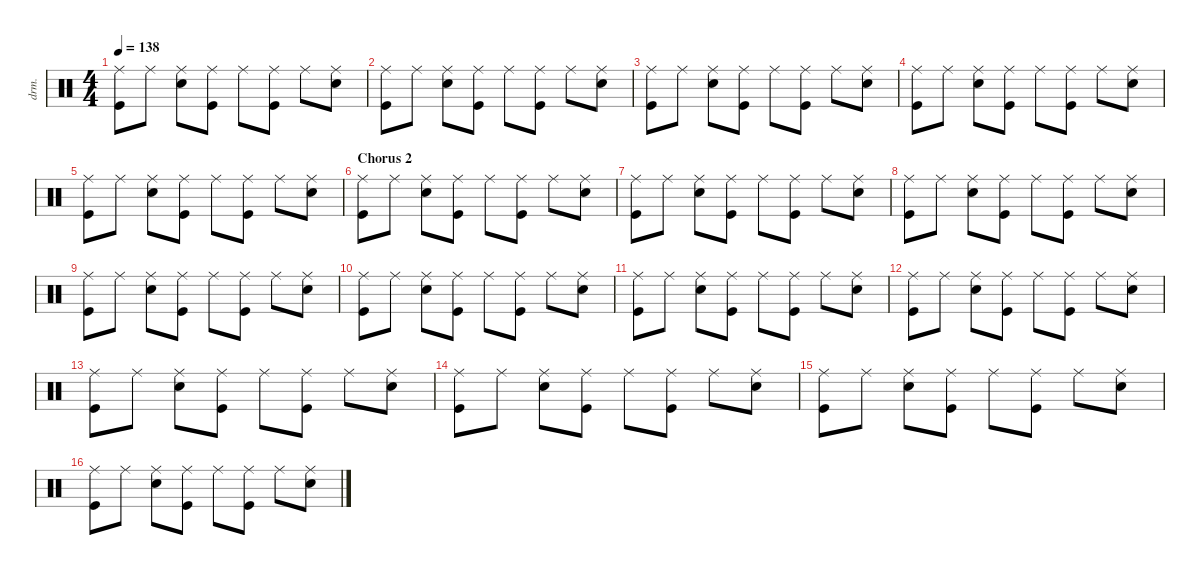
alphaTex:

\defaultSystemsLayout 4
\hideDynamics
\bracketExtendMode nobrackets
\otherSystemsTrackNameOrientation horizontal
\track ("Drums" "drm.") {instrument percussion}
\staff {score}
\articulation defaults
\ts (4 4)
\tempo 138
\clef neutral
\ks c
("Ride (middle)" "Kick (hit)").8{dy f beam Down} "Ride (middle)".8{beam Down} ("Ride (middle)" "Snare (hit) 2").8{beam Down} ("Ride (middle)" "Kick (hit)").8{beam Down} "Ride (middle)".8{beam Down} ("Ride (middle)" "Kick (hit)").8{beam Down} "Ride (middle)".8{beam Down} ("Ride (middle)" "Snare (hit) 2").8{beam Down} |
("Ride (middle)" "Kick (hit)").8{beam Down} "Ride (middle)".8{beam Down} ("Ride (middle)" "Snare (hit) 2").8{beam Down} ("Ride (middle)" "Kick (hit)").8{beam Down} "Ride (middle)".8{beam Down} ("Ride (middle)" "Kick (hit)").8{beam Down} "Ride (middle)".8{beam Down} ("Ride (middle)" "Snare (hit) 2").8{beam Down} |
("Ride (middle)" "Kick (hit)").8{beam Down} "Ride (middle)".8{beam Down} ("Ride (middle)" "Snare (hit) 2").8{beam Down} ("Ride (middle)" "Kick (hit)").8{beam Down} "Ride (middle)".8{beam Down} ("Ride (middle)" "Kick (hit)").8{beam Down} "Ride (middle)".8{beam Down} ("Ride (middle)" "Snare (hit) 2").8{beam Down} |
("Ride (middle)" "Kick (hit)").8{beam Down} "Ride (middle)".8{beam Down} ("Ride (middle)" "Snare (hit) 2").8{beam Down} ("Ride (middle)" "Kick (hit)").8{beam Down} "Ride (middle)".8{beam Down} ("Ride (middle)" "Kick (hit)").8{beam Down} "Ride (middle)".8{beam Down} ("Ride (middle)" "Snare (hit) 2").8{beam Down} |
("Ride (middle)" "Kick (hit)").8{beam Down} "Ride (middle)".8{beam Down} ("Ride (middle)" "Snare (hit) 2").8{beam Down} ("Ride (middle)" "Kick (hit)").8{beam Down} "Ride (middle)".8{beam Down} ("Ride (middle)" "Kick (hit)").8{beam Down} "Ride (middle)".8{beam Down} ("Ride (middle)" "Snare (hit) 2").8{beam Down} |
\section ("" "Chorus 2")
("Ride (middle)" "Kick (hit)").8{beam Down} "Ride (middle)".8{beam Down} ("Ride (middle)" "Snare (hit) 2").8{beam Down} ("Ride (middle)" "Kick (hit)").8{beam Down} "Ride (middle)".8{beam Down} ("Ride (middle)" "Kick (hit)").8{beam Down} "Ride (middle)".8{beam Down} ("Ride (middle)" "Snare (hit) 2").8{beam Down} |
("Ride (middle)" "Kick (hit)").8{beam Down} "Ride (middle)".8{beam Down} ("Ride (middle)" "Snare (hit) 2").8{beam Down} ("Ride (middle)" "Kick (hit)").8{beam Down} "Ride (middle)".8{beam Down} ("Ride (middle)" "Kick (hit)").8{beam Down} "Ride (middle)".8{beam Down} ("Ride (middle)" "Snare (hit) 2").8{beam Down} |
("Ride (middle)" "Kick (hit)").8{beam Down} "Ride (middle)".8{beam Down} ("Ride (middle)" "Snare (hit) 2").8{beam Down} ("Ride (middle)" "Kick (hit)").8{beam Down} "Ride (middle)".8{beam Down} ("Ride (middle)" "Kick (hit)").8{beam Down} "Ride (middle)".8{beam Down} ("Ride (middle)" "Snare (hit) 2").8{beam Down} |
("Ride (middle)" "Kick (hit)").8{beam Down} "Ride (middle)".8{beam Down} ("Ride (middle)" "Snare (hit) 2").8{beam Down} ("Ride (middle)" "Kick (hit)").8{beam Down} "Ride (middle)".8{beam Down} ("Ride (middle)" "Kick (hit)").8{beam Down} "Ride (middle)".8{beam Down} ("Ride (middle)" "Snare (hit) 2").8{beam Down} |
("Ride (middle)" "Kick (hit)").8{beam Down} "Ride (middle)".8{beam Down} ("Ride (middle)" "Snare (hit) 2").8{beam Down} ("Ride (middle)" "Kick (hit)").8{beam Down} "Ride (middle)".8{beam Down} ("Ride (middle)" "Kick (hit)").8{beam Down} "Ride (middle)".8{beam Down} ("Ride (middle)" "Snare (hit) 2").8{beam Down} |
("Ride (middle)" "Kick (hit)").8{beam Down} "Ride (middle)".8{beam Down} ("Ride (middle)" "Snare (hit) 2").8{beam Down} ("Ride (middle)" "Kick (hit)").8{beam Down} "Ride (middle)".8{beam Down} ("Ride (middle)" "Kick (hit)").8{beam Down} "Ride (middle)".8{beam Down} ("Ride (middle)" "Snare (hit) 2").8{beam Down} |
("Ride (middle)" "Kick (hit)").8{beam Down} "Ride (middle)".8{beam Down} ("Ride (middle)" "Snare (hit) 2").8{beam Down} ("Ride (middle)" "Kick (hit)").8{beam Down} "Ride (middle)".8{beam Down} ("Ride (middle)" "Kick (hit)").8{beam Down} "Ride (middle)".8{beam Down} ("Ride (middle)" "Snare (hit) 2").8{beam Down} |
("Ride (middle)" "Kick (hit)").8{beam Down} "Ride (middle)".8{beam Down} ("Ride (middle)" "Snare (hit) 2").8{beam Down} ("Ride (middle)" "Kick (hit)").8{beam Down} "Ride (middle)".8{beam Down} ("Ride (middle)" "Kick (hit)").8{beam Down} "Ride (middle)".8{beam Down} ("Ride (middle)" "Snare (hit) 2").8{beam Down} |
("Ride (middle)" "Kick (hit)").8{beam Down} "Ride (middle)".8{beam Down} ("Ride (middle)" "Snare (hit) 2").8{beam Down} ("Ride (middle)" "Kick (hit)").8{beam Down} "Ride (middle)".8{beam Down} ("Ride (middle)" "Kick (hit)").8{beam Down} "Ride (middle)".8{beam Down} ("Ride (middle)" "Snare (hit) 2").8{beam Down} |
("Ride (middle)" "Kick (hit)").8{beam Down} "Ride (middle)".8{beam Down} ("Ride (middle)" "Snare (hit) 2").8{beam Down} ("Ride (middle)" "Kick (hit)").8{beam Down} "Ride (middle)".8{beam Down} ("Ride (middle)" "Kick (hit)").8{beam Down} "Ride (middle)".8{beam Down} ("Ride (middle)" "Snare (hit) 2").8{beam Down} |
("Ride (middle)" "Kick (hit)").8{beam Down} "Ride (middle)".8{beam Down} ("Ride (middle)" "Snare (hit) 2").8{beam Down} ("Ride (middle)" "Kick (hit)").8{beam Down} "Ride (middle)".8{beam Down} ("Ride (middle)" "Kick (hit)").8{beam Down} "Ride (middle)".8{beam Down} ("Ride (middle)" "Snare (hit) 2").8{beam Down}
